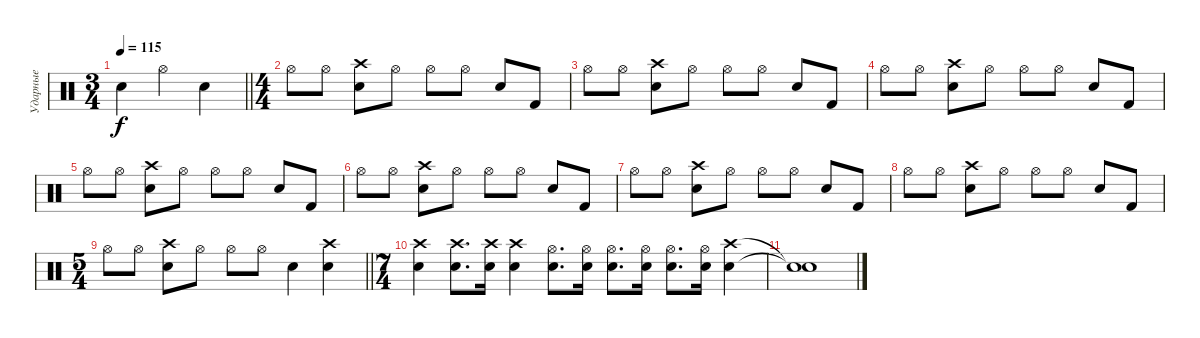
\track ("Ударные" "Ударные") {instrument percussion}
\staff {score}
\articulation defaults
\ts (3 4)
\tempo 115
\clef neutral
\barLineRight lightlight
\ks c "Snare (hit) 2".4{dy f} "Hi-Hat (open)".4 "Snare (hit) 2".4
|
\ts (4 4)
"Hi-Hat (open)".8 "Hi-Hat (open)".8 ("Crash high (hit)" "Snare (hit) 2").8 "Hi-Hat (open)".8 "Hi-Hat (open)".8 "Hi-Hat (open)".8 "Snare (hit) 2".8 "Kick (hit) 2".8 |
"Hi-Hat (open)".8 "Hi-Hat (open)".8 ("Crash high (hit)" "Snare (hit) 2").8 "Hi-Hat (open)".8 "Hi-Hat (open)".8 "Hi-Hat (open)".8 "Snare (hit) 2".8 "Kick (hit) 2".8 |
"Hi-Hat (open)".8 "Hi-Hat (open)".8 ("Crash high (hit)" "Snare (hit) 2").8 "Hi-Hat (open)".8 "Hi-Hat (open)".8 "Hi-Hat (open)".8 "Snare (hit) 2".8 "Kick (hit) 2".8 |
"Hi-Hat (open)".8 "Hi-Hat (open)".8 ("Crash high (hit)" "Snare (hit) 2").8 "Hi-Hat (open)".8 "Hi-Hat (open)".8 "Hi-Hat (open)".8 "Snare (hit) 2".8 "Kick (hit) 2".8 |
"Hi-Hat (open)".8 "Hi-Hat (open)".8 ("Crash high (hit)" "Snare (hit) 2").8 "Hi-Hat (open)".8 "Hi-Hat (open)".8 "Hi-Hat (open)".8 "Snare (hit) 2".8 "Kick (hit) 2".8 |
"Hi-Hat (open)".8 "Hi-Hat (open)".8 ("Crash high (hit)" "Snare (hit) 2").8 "Hi-Hat (open)".8 "Hi-Hat (open)".8 "Hi-Hat (open)".8 "Snare (hit) 2".8 "Kick (hit) 2".8 |
"Hi-Hat (open)".8 "Hi-Hat (open)".8 ("Crash high (hit)" "Snare (hit) 2").8 "Hi-Hat (open)".8 "Hi-Hat (open)".8 "Hi-Hat (open)".8 "Snare (hit) 2".8 "Kick (hit) 2".8 |
\ts (5 4)
\barLineRight lightlight "Hi-Hat (open)".8 "Hi-Hat (open)".8
("Crash high (hit)" "Snare (hit) 2").8 "Hi-Hat (open)".8 "Hi-Hat (open)".8 "Hi-Hat (open)".8 "Snare (hit) 2".4 ("Snare (hit) 2" "Crash high (hit)").4 |
\ts (7 4)
("Snare (hit) 2" "Crash high (hit)").4 ("Snare (hit) 2" "Crash high (hit)").8{d} ("Snare (hit) 2" "Crash high (hit)").16 ("Snare (hit) 2" "Crash high (hit)").4 ("Snare (hit) 2" "Hi-Hat (open)").8{d} ("Snare (hit) 2" "Hi-Hat (open)").16 ("Snare (hit) 2" "Hi-Hat (open)").8{d} ("Snare (hit) 2" "Hi-Hat (open)").16 ("Snare (hit) 2" "Hi-Hat (open)").8{d} ("Snare (hit) 2" "Hi-Hat (open)").16 ("Snare (hit) 2" "Crash high (hit)").4 |
("Snare (hit)"{t} "Snare (hit)"{t}).1
